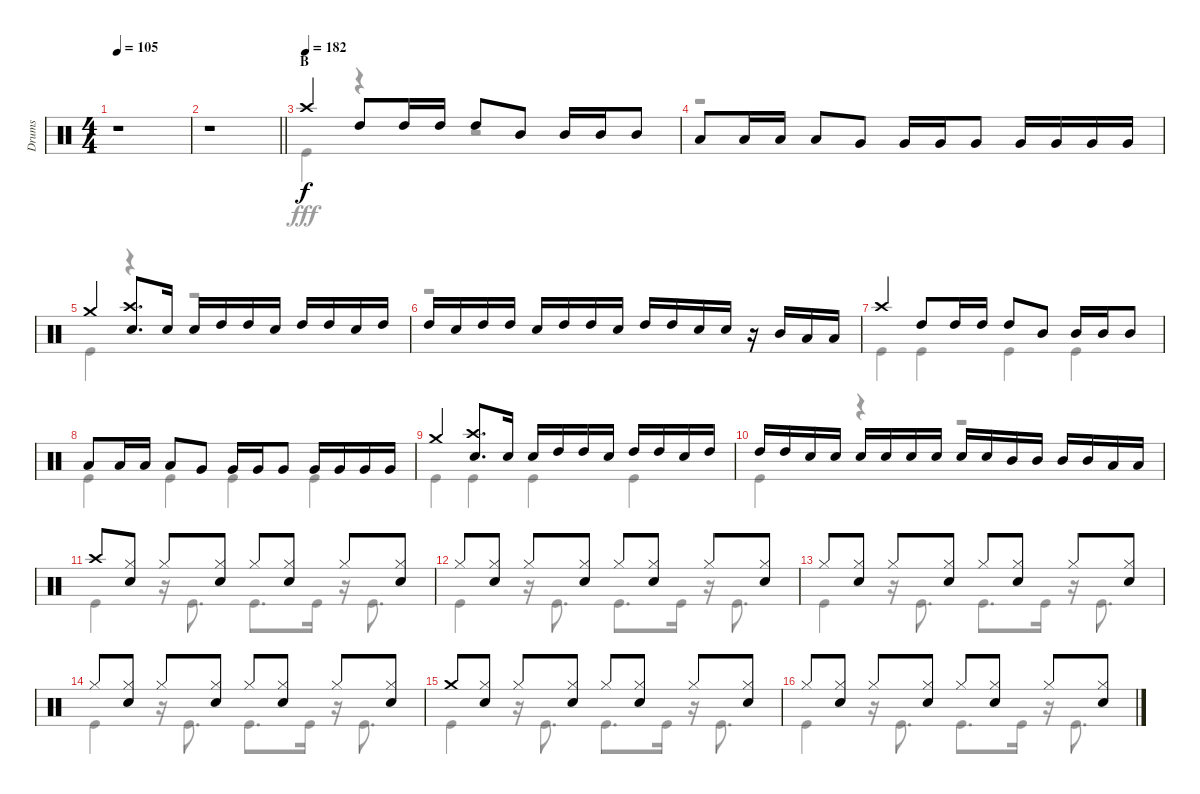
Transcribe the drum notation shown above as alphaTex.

\track ("Drums" "Drums") {instrument percussion}
\staff {score}
\articulation defaults
\voice
\ts (4 4)
\tempo 105
\clef neutral
\ks c
r.1{dy f} |
\barLineRight lightlight
r.1 |
\section ("" "B")
\tempo (182)
"Crash high (hit)".4 "High Tom (hit)".8 "High Tom (hit)".16 "High Tom (hit)".16 "High Tom (hit)".8 "Mid Tom (hit)".8 "Mid Tom (hit)".16 "Mid Tom (hit)".16 "Mid Tom (hit)".8 |
"Low Tom (hit)".8 "Low Tom (hit)".16 "Low Tom (hit)".16 "Low Tom (hit)".8 "Very Low Tom (hit)".8 "Very Low Tom (hit)".16 "Very Low Tom (hit)".16 "Very Low Tom (hit)".8 "Very Low Tom (hit)".16 "Very Low Tom (hit)".16 "Very Low Tom (hit)".16 "Very Low Tom (hit)".16 |
"Crash medium (hit)".4 ("Crash high (hit)" "Snare (hit) 2").8{d} "Snare (hit) 2".16 "Snare (hit) 2".16 "High Tom (hit)".16 "High Tom (hit)".16 "Snare (hit) 2".16 "High Tom (hit)".16 "High Tom (hit)".16 "Snare (hit) 2".16 "High Tom (hit)".16 |
"High Tom (hit)".16 "Snare (hit) 2".16 "High Tom (hit)".16 "High Tom (hit)".16 "Snare (hit) 2".16 "High Tom (hit)".16 "High Tom (hit)".16 "Snare (hit) 2".16 "High Tom (hit)".16 "High Tom (hit)".16 "Snare (hit) 2".16 "Snare (hit) 2".16 r.16 "Mid Tom (hit)".16 "Low Tom (hit)".16 "Low Tom (hit)".16 |
"Crash high (hit)".4 "High Tom (hit)".8 "High Tom (hit)".16 "High Tom (hit)".16 "High Tom (hit)".8 "Mid Tom (hit)".8 "Mid Tom (hit)".16 "Mid Tom (hit)".16 "Mid Tom (hit)".8 |
"Low Tom (hit)".8 "Low Tom (hit)".16 "Low Tom (hit)".16 "Low Tom (hit)".8 "Very Low Tom (hit)".8 "Very Low Tom (hit)".16 "Very Low Tom (hit)".16 "Very Low Tom (hit)".8 "Very Low Tom (hit)".16 "Very Low Tom (hit)".16 "Very Low Tom (hit)".16 "Very Low Tom (hit)".16 |
"Crash medium (hit)".4 ("Crash high (hit)" "Snare (hit) 2").8{d} "Snare (hit) 2".16 "Snare (hit) 2".16 "High Tom (hit)".16 "High Tom (hit)".16 "Snare (hit) 2".16 "High Tom (hit)".16 "High Tom (hit)".16 "Snare (hit) 2".16 "High Tom (hit)".16 |
"High Tom (hit)".16 "High Tom (hit)".16 "Snare (hit) 2".16 "Snare (hit) 2".16 "Snare (hit) 2".16 "Snare (hit) 2".16 "Snare (hit) 2".16 "Snare (hit) 2".16 "Snare (hit) 2".16 "Snare (hit) 2".16 "Mid Tom (hit)".16 "Mid Tom (hit)".16 "Mid Tom (hit)".16 "Mid Tom (hit)".16 "Low Tom (hit)".16 "Low Tom (hit)".16 |
"Crash high (hit)".8 ("Hi-Hat (closed)" "Snare (hit) 2").8 "Hi-Hat (closed)".8 ("Hi-Hat (closed)" "Snare (hit) 2").8 "Hi-Hat (closed)".8 ("Hi-Hat (closed)" "Snare (hit) 2").8 "Hi-Hat (closed)".8 ("Hi-Hat (closed)" "Snare (hit) 2").8 |
"Hi-Hat (closed)".8 ("Hi-Hat (closed)" "Snare (hit) 2").8 "Hi-Hat (closed)".8 ("Hi-Hat (closed)" "Snare (hit) 2").8 "Hi-Hat (closed)".8 ("Hi-Hat (closed)" "Snare (hit) 2").8 "Hi-Hat (closed)".8 ("Hi-Hat (closed)" "Snare (hit) 2").8 |
"Hi-Hat (closed)".8 ("Hi-Hat (closed)" "Snare (hit) 2").8 "Hi-Hat (closed)".8 ("Hi-Hat (closed)" "Snare (hit) 2").8 "Hi-Hat (closed)".8 ("Hi-Hat (closed)" "Snare (hit) 2").8 "Hi-Hat (closed)".8 ("Hi-Hat (closed)" "Snare (hit) 2").8 |
"Hi-Hat (closed)".8 ("Hi-Hat (closed)" "Snare (hit) 2").8 "Hi-Hat (closed)".8 ("Hi-Hat (closed)" "Snare (hit) 2").8 "Hi-Hat (closed)".8 ("Hi-Hat (closed)" "Snare (hit) 2").8 "Hi-Hat (closed)".8 ("Hi-Hat (closed)" "Snare (hit) 2").8 |
"Crash medium (hit)".8 ("Hi-Hat (closed)" "Snare (hit) 2").8 "Hi-Hat (closed)".8 ("Hi-Hat (closed)" "Snare (hit) 2").8 "Hi-Hat (closed)".8 ("Hi-Hat (closed)" "Snare (hit) 2").8 "Hi-Hat (closed)".8 ("Hi-Hat (closed)" "Snare (hit) 2").8 |
"Hi-Hat (closed)".8 ("Hi-Hat (closed)" "Snare (hit) 2").8 "Hi-Hat (closed)".8 ("Hi-Hat (closed)" "Snare (hit) 2").8 "Hi-Hat (closed)".8 ("Hi-Hat (closed)" "Snare (hit) 2").8 "Hi-Hat (closed)".8 ("Hi-Hat (closed)" "Snare (hit) 2").8
\voice
\clef neutral
\ottava regular
\simile none
\ks c
r.1{dy fff} |
\barLineRight lightlight
r.1 |
"Kick (hit)".4 r.4 r.2 |
r.1 |
"Kick (hit)".4 r.4 r.2 |
r.1 |
"Kick (hit)".4 "Kick (hit)".4 "Kick (hit)".4 "Kick (hit)".4 |
"Kick (hit)".4 "Kick (hit)".4 "Kick (hit)".4 "Kick (hit)".4 |
"Kick (hit)".4 "Kick (hit)".4 "Kick (hit)".4 "Kick (hit)".4 |
"Kick (hit)".4 r.4 r.2 |
"Kick (hit)".4 r.16 "Kick (hit)".8{d} "Kick (hit)".8{d} "Kick (hit)".16 r.16 "Kick (hit)".8{d} |
"Kick (hit)".4 r.16 "Kick (hit)".8{d} "Kick (hit)".8{d} "Kick (hit)".16 r.16 "Kick (hit)".8{d} |
"Kick (hit)".4 r.16 "Kick (hit)".8{d} "Kick (hit)".8{d} "Kick (hit)".16 r.16 "Kick (hit)".8{d} |
"Kick (hit)".4 r.16 "Kick (hit)".8{d} "Kick (hit)".8{d} "Kick (hit)".16 r.16 "Kick (hit)".8{d} |
"Kick (hit)".4 r.16 "Kick (hit)".8{d} "Kick (hit)".8{d} "Kick (hit)".16 r.16 "Kick (hit)".8{d} |
"Kick (hit)".4 r.16 "Kick (hit)".8{d} "Kick (hit)".8{d} "Kick (hit)".16 r.16 "Kick (hit)".8{d}
